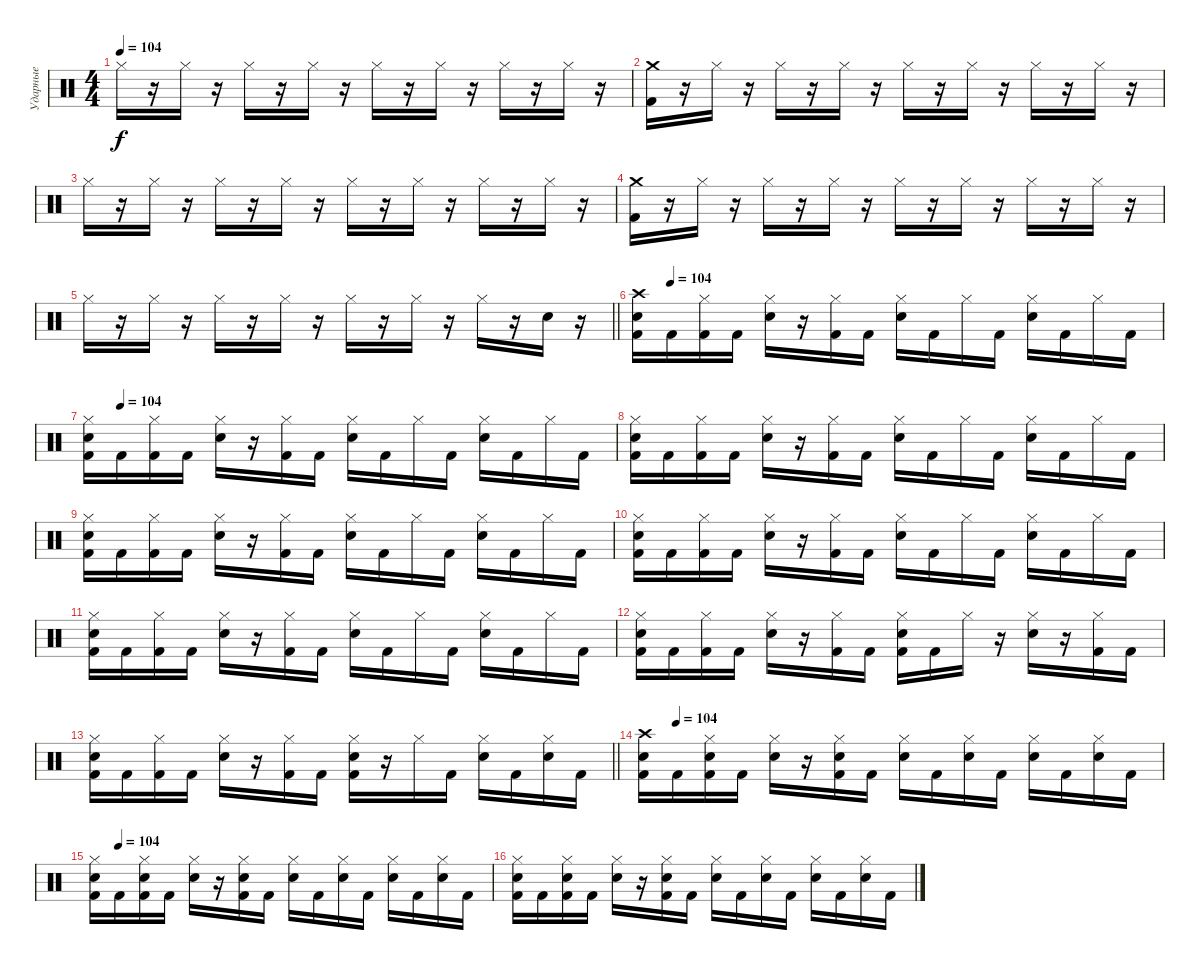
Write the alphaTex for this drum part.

\track ("Ударные" "Ударные") {instrument percussion}
\staff {score}
\articulation defaults
\ts (4 4)
\tempo 104
\clef neutral
\ks c "Hi-Hat (closed)".16{dy f}
r.16 "Hi-Hat (closed)".16 r.16 "Hi-Hat (closed)".16 r.16 "Hi-Hat (closed)".16 r.16 "Hi-Hat (closed)".16 r.16 "Hi-Hat (closed)".16 r.16 "Hi-Hat (closed)".16 r.16 "Hi-Hat (closed)".16 r.16 |
("Crash medium (hit)" "Kick (hit) 2").16 r.16 "Hi-Hat (closed)".16 r.16 "Hi-Hat (closed)".16 r.16 "Hi-Hat (closed)".16 r.16 "Hi-Hat (closed)".16 r.16 "Hi-Hat (closed)".16 r.16 "Hi-Hat (closed)".16 r.16 "Hi-Hat (closed)".16 r.16 |
"Hi-Hat (closed)".16 r.16 "Hi-Hat (closed)".16 r.16 "Hi-Hat (closed)".16 r.16 "Hi-Hat (closed)".16 r.16 "Hi-Hat (closed)".16 r.16 "Hi-Hat (closed)".16 r.16 "Hi-Hat (closed)".16 r.16 "Hi-Hat (closed)".16 r.16 |
("Crash medium (hit)" "Kick (hit) 2").16 r.16 "Hi-Hat (closed)".16 r.16 "Hi-Hat (closed)".16 r.16 "Hi-Hat (closed)".16 r.16 "Hi-Hat (closed)".16 r.16 "Hi-Hat (closed)".16 r.16 "Hi-Hat (closed)".16 r.16 "Hi-Hat (closed)".16 r.16 |
\barLineRight lightlight "Hi-Hat (closed)".16
r.16 "Hi-Hat (closed)".16 r.16 "Hi-Hat (closed)".16 r.16 "Hi-Hat (closed)".16 r.16 "Hi-Hat (closed)".16 r.16 "Hi-Hat (closed)".16 r.16 "Hi-Hat (closed)".16 r.16 "Snare (hit) 2".16 r.16 |
\tempo (104 0.0625)
("Crash high (hit)" "Snare (hit) 2" "Kick (hit) 2").16 "Kick (hit) 2".16 ("Hi-Hat (closed)" "Kick (hit) 2").16 "Kick (hit) 2".16 ("Hi-Hat (closed)" "Snare (hit) 2").16 r.16 ("Hi-Hat (closed)" "Kick (hit) 2").16 "Kick (hit) 2".16 ("Hi-Hat (closed)" "Snare (hit) 2").16 "Kick (hit) 2".16 "Hi-Hat (closed)".16 "Kick (hit) 2".16 ("Hi-Hat (closed)" "Snare (hit) 2").16 "Kick (hit) 2".16 "Hi-Hat (closed)".16 "Kick (hit) 2".16 |
\tempo (104 0.0625)
("Hi-Hat (closed)" "Snare (hit) 2" "Kick (hit) 2").16 "Kick (hit) 2".16 ("Hi-Hat (closed)" "Kick (hit) 2").16 "Kick (hit) 2".16 ("Hi-Hat (closed)" "Snare (hit) 2").16 r.16 ("Hi-Hat (closed)" "Kick (hit) 2").16 "Kick (hit) 2".16 ("Hi-Hat (closed)" "Snare (hit) 2").16 "Kick (hit) 2".16 "Hi-Hat (closed)".16 "Kick (hit) 2".16 ("Hi-Hat (closed)" "Snare (hit) 2").16 "Kick (hit) 2".16 "Hi-Hat (closed)".16 "Kick (hit) 2".16 |
("Hi-Hat (closed)" "Snare (hit) 2" "Kick (hit) 2").16 "Kick (hit) 2".16 ("Hi-Hat (closed)" "Kick (hit) 2").16 "Kick (hit) 2".16 ("Hi-Hat (closed)" "Snare (hit) 2").16 r.16 ("Hi-Hat (closed)" "Kick (hit) 2").16 "Kick (hit) 2".16 ("Hi-Hat (closed)" "Snare (hit) 2").16 "Kick (hit) 2".16 "Hi-Hat (closed)".16 "Kick (hit) 2".16 ("Hi-Hat (closed)" "Snare (hit) 2").16 "Kick (hit) 2".16 "Hi-Hat (closed)".16 "Kick (hit) 2".16 |
("Hi-Hat (closed)" "Snare (hit) 2" "Kick (hit) 2").16 "Kick (hit) 2".16 ("Hi-Hat (closed)" "Kick (hit) 2").16 "Kick (hit) 2".16 ("Hi-Hat (closed)" "Snare (hit) 2").16 r.16 ("Hi-Hat (closed)" "Kick (hit) 2").16 "Kick (hit) 2".16 ("Hi-Hat (closed)" "Snare (hit) 2").16 "Kick (hit) 2".16 "Hi-Hat (closed)".16 "Kick (hit) 2".16 ("Hi-Hat (closed)" "Snare (hit) 2").16 "Kick (hit) 2".16 "Hi-Hat (closed)".16 "Kick (hit) 2".16 |
("Hi-Hat (closed)" "Snare (hit) 2" "Kick (hit) 2").16 "Kick (hit) 2".16 ("Hi-Hat (closed)" "Kick (hit) 2").16 "Kick (hit) 2".16 ("Hi-Hat (closed)" "Snare (hit) 2").16 r.16 ("Hi-Hat (closed)" "Kick (hit) 2").16 "Kick (hit) 2".16 ("Hi-Hat (closed)" "Snare (hit) 2").16 "Kick (hit) 2".16 "Hi-Hat (closed)".16 "Kick (hit) 2".16 ("Hi-Hat (closed)" "Snare (hit) 2").16 "Kick (hit) 2".16 "Hi-Hat (closed)".16 "Kick (hit) 2".16 |
("Hi-Hat (closed)" "Snare (hit) 2" "Kick (hit) 2").16 "Kick (hit) 2".16 ("Hi-Hat (closed)" "Kick (hit) 2").16 "Kick (hit) 2".16 ("Hi-Hat (closed)" "Snare (hit) 2").16 r.16 ("Hi-Hat (closed)" "Kick (hit) 2").16 "Kick (hit) 2".16 ("Hi-Hat (closed)" "Snare (hit) 2").16 "Kick (hit) 2".16 "Hi-Hat (closed)".16 "Kick (hit) 2".16 ("Hi-Hat (closed)" "Snare (hit) 2").16 "Kick (hit) 2".16 "Hi-Hat (closed)".16 "Kick (hit) 2".16 |
("Hi-Hat (closed)" "Snare (hit) 2" "Kick (hit) 2").16 "Kick (hit) 2".16 ("Hi-Hat (closed)" "Kick (hit) 2").16 "Kick (hit) 2".16 ("Hi-Hat (closed)" "Snare (hit) 2").16 r.16 ("Hi-Hat (closed)" "Kick (hit) 2").16 "Kick (hit) 2".16 ("Hi-Hat (closed)" "Snare (hit) 2" "Kick (hit) 2").16 "Kick (hit) 2".16 "Hi-Hat (closed)".16 r.16 ("Hi-Hat (closed)" "Snare (hit) 2").16 r.16 ("Hi-Hat (closed)" "Kick (hit) 2").16 "Kick (hit) 2".16 |
\barLineRight lightlight
("Hi-Hat (closed)" "Snare (hit) 2" "Kick (hit) 2").16 "Kick (hit) 2".16 ("Hi-Hat (closed)" "Kick (hit) 2").16 "Kick (hit) 2".16 ("Hi-Hat (closed)" "Snare (hit) 2").16 r.16 ("Hi-Hat (closed)" "Kick (hit) 2").16 "Kick (hit) 2".16 ("Hi-Hat (closed)" "Snare (hit) 2" "Kick (hit) 2").16 r.16 "Hi-Hat (closed)".16 "Kick (hit) 2".16 ("Hi-Hat (closed)" "Snare (hit) 2").16 "Kick (hit) 2".16 ("Hi-Hat (closed)" "Snare (hit) 2").16 "Kick (hit) 2".16 |
\tempo (104 0.0625)
("Crash high (hit)" "Snare (hit) 2" "Kick (hit) 2").16 "Kick (hit) 2".16 ("Hi-Hat (closed)" "Snare (hit) 2" "Kick (hit) 2").16 "Kick (hit) 2".16 ("Hi-Hat (closed)" "Snare (hit) 2").16 r.16 ("Hi-Hat (closed)" "Snare (hit) 2" "Kick (hit) 2").16 "Kick (hit) 2".16 ("Hi-Hat (closed)" "Snare (hit) 2").16 "Kick (hit) 2".16 ("Hi-Hat (closed)" "Snare (hit) 2").16 "Kick (hit) 2".16 ("Hi-Hat (closed)" "Snare (hit) 2").16 "Kick (hit) 2".16 ("Hi-Hat (closed)" "Snare (hit) 2").16 "Kick (hit) 2".16 |
\tempo (104 0.0625)
("Hi-Hat (closed)" "Snare (hit) 2" "Kick (hit) 2").16 "Kick (hit) 2".16 ("Hi-Hat (closed)" "Snare (hit) 2" "Kick (hit) 2").16 "Kick (hit) 2".16 ("Hi-Hat (closed)" "Snare (hit) 2").16 r.16 ("Hi-Hat (closed)" "Snare (hit) 2" "Kick (hit) 2").16 "Kick (hit) 2".16 ("Hi-Hat (closed)" "Snare (hit) 2").16 "Kick (hit) 2".16 ("Hi-Hat (closed)" "Snare (hit) 2").16 "Kick (hit) 2".16 ("Hi-Hat (closed)" "Snare (hit) 2").16 "Kick (hit) 2".16 ("Hi-Hat (closed)" "Snare (hit) 2").16 "Kick (hit) 2".16 |
("Hi-Hat (closed)" "Snare (hit) 2" "Kick (hit) 2").16 "Kick (hit) 2".16 ("Hi-Hat (closed)" "Snare (hit) 2" "Kick (hit) 2").16 "Kick (hit) 2".16 ("Hi-Hat (closed)" "Snare (hit) 2").16 r.16 ("Hi-Hat (closed)" "Snare (hit) 2" "Kick (hit) 2").16 "Kick (hit) 2".16 ("Hi-Hat (closed)" "Snare (hit) 2").16 "Kick (hit) 2".16 ("Hi-Hat (closed)" "Snare (hit) 2").16 "Kick (hit) 2".16 ("Hi-Hat (closed)" "Snare (hit) 2").16 "Kick (hit) 2".16 ("Hi-Hat (closed)" "Snare (hit) 2").16 "Kick (hit) 2".16
